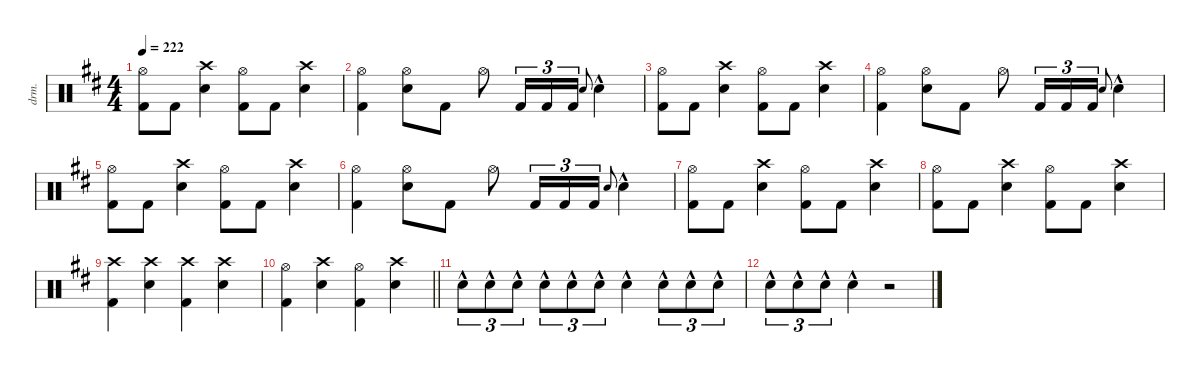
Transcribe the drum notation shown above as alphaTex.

\defaultSystemsLayout 4
\hideDynamics
\bracketExtendMode nobrackets
\otherSystemsTrackNameOrientation horizontal
\track ("Lars Ulrich" "drm.") {defaultSystemsLayout 4 instrument percussion}
\staff {score}
\articulation defaults
\ts (4 4)
\tempo 222
\clef neutral
\ks bminor
("Hi-Hat (open)"{acc forcenatural} "Kick (hit) 2"{acc forcenatural}).8{dy f} "Kick (hit) 2"{acc forcenatural}.8 ("Crash high (hit)"{acc forcenatural} "Snare (hit) 2"{acc forcenatural}).4 ("Hi-Hat (open)"{acc forcenatural} "Kick (hit) 2"{acc forcenatural}).8 "Kick (hit) 2"{acc forcenatural}.8 ("Crash high (hit)"{acc forcenatural} "Snare (hit) 2"{acc forcenatural}).4 |
("Hi-Hat (open)"{acc forcenatural} "Kick (hit) 2"{acc forcenatural}).4 ("Hi-Hat (open)"{acc forcenatural} "Snare (hit) 2"{acc forcenatural}).8 "Kick (hit) 2"{acc forcenatural}.8 "Hi-Hat (open)"{acc forcenatural}.8 "Kick (hit) 2"{acc forcenatural}.16{tu (3 2)} "Kick (hit) 2"{acc forcenatural}.16{tu (3 2)} "Kick (hit) 2"{acc forcenatural}.16{tu (3 2)} "Electric Snare (hit)"{acc forcenatural}.8{gr onbeat dy mp} "Snare (hit) 2"{hac acc forcenatural}.4{dy f} |
("Hi-Hat (open)"{acc forcenatural} "Kick (hit) 2"{acc forcenatural}).8 "Kick (hit) 2"{acc forcenatural}.8 ("Crash high (hit)"{acc forcenatural} "Snare (hit) 2"{acc forcenatural}).4 ("Hi-Hat (open)"{acc forcenatural} "Kick (hit) 2"{acc forcenatural}).8 "Kick (hit) 2"{acc forcenatural}.8 ("Crash high (hit)"{acc forcenatural} "Snare (hit) 2"{acc forcenatural}).4 |
("Hi-Hat (open)"{acc forcenatural} "Kick (hit) 2"{acc forcenatural}).4 ("Hi-Hat (open)"{acc forcenatural} "Snare (hit) 2"{acc forcenatural}).8 "Kick (hit) 2"{acc forcenatural}.8 "Hi-Hat (open)"{acc forcenatural}.8 "Kick (hit) 2"{acc forcenatural}.16{tu (3 2)} "Kick (hit) 2"{acc forcenatural}.16{tu (3 2)} "Kick (hit) 2"{acc forcenatural}.16{tu (3 2)} "Electric Snare (hit)"{acc forcenatural}.8{gr onbeat dy mp} "Snare (hit) 2"{hac acc forcenatural}.4{dy f} |
("Hi-Hat (open)"{acc forcenatural} "Kick (hit) 2"{acc forcenatural}).8 "Kick (hit) 2"{acc forcenatural}.8 ("Crash high (hit)"{acc forcenatural} "Snare (hit) 2"{acc forcenatural}).4 ("Hi-Hat (open)"{acc forcenatural} "Kick (hit) 2"{acc forcenatural}).8 "Kick (hit) 2"{acc forcenatural}.8 ("Crash high (hit)"{acc forcenatural} "Snare (hit) 2"{acc forcenatural}).4 |
("Hi-Hat (open)"{acc forcenatural} "Kick (hit) 2"{acc forcenatural}).4 ("Hi-Hat (open)"{acc forcenatural} "Snare (hit) 2"{acc forcenatural}).8 "Kick (hit) 2"{acc forcenatural}.8 "Hi-Hat (open)"{acc forcenatural}.8 "Kick (hit) 2"{acc forcenatural}.16{tu (3 2)} "Kick (hit) 2"{acc forcenatural}.16{tu (3 2)} "Kick (hit) 2"{acc forcenatural}.16{tu (3 2)} "Electric Snare (hit)"{acc forcenatural}.8{gr onbeat dy mp} "Snare (hit) 2"{hac acc forcenatural}.4{dy f} |
("Hi-Hat (open)"{acc forcenatural} "Kick (hit) 2"{acc forcenatural}).8 "Kick (hit) 2"{acc forcenatural}.8 ("Crash high (hit)"{acc forcenatural} "Snare (hit) 2"{acc forcenatural}).4 ("Hi-Hat (open)"{acc forcenatural} "Kick (hit) 2"{acc forcenatural}).8 "Kick (hit) 2"{acc forcenatural}.8 ("Crash high (hit)"{acc forcenatural} "Snare (hit) 2"{acc forcenatural}).4 |
("Hi-Hat (open)"{acc forcenatural} "Kick (hit) 2"{acc forcenatural}).8 "Kick (hit) 2"{acc forcenatural}.8 ("Crash high (hit)"{acc forcenatural} "Snare (hit) 2"{acc forcenatural}).4 ("Hi-Hat (open)"{acc forcenatural} "Kick (hit) 2"{acc forcenatural}).8 "Kick (hit) 2"{acc forcenatural}.8 ("Crash high (hit)"{acc forcenatural} "Snare (hit) 2"{acc forcenatural}).4 |
("Crash high (hit)"{acc forcenatural} "Kick (hit) 2"{acc forcenatural}).4 ("Crash high (hit)"{acc forcenatural} "Snare (hit) 2"{acc forcenatural}).4 ("Crash high (hit)"{acc forcenatural} "Kick (hit) 2"{acc forcenatural}).4 ("Crash high (hit)"{acc forcenatural} "Snare (hit) 2"{acc forcenatural}).4 |
\barLineRight lightlight
("Hi-Hat (open)"{acc forcenatural} "Kick (hit) 2"{acc forcenatural}).4 ("Crash high (hit)"{acc forcenatural} "Snare (hit) 2"{acc forcenatural}).4 ("Hi-Hat (open)"{acc forcenatural} "Kick (hit) 2"{acc forcenatural}).4 ("Crash high (hit)"{acc forcenatural} "Snare (hit) 2"{acc forcenatural}).4 |
"Snare (hit) 2"{hac acc forcenatural}.8{tu (3 2)} "Snare (hit) 2"{hac acc forcenatural}.8{tu (3 2)} "Snare (hit) 2"{hac acc forcenatural}.8{tu (3 2)} "Snare (hit) 2"{hac acc forcenatural}.8{tu (3 2)} "Snare (hit) 2"{hac acc forcenatural}.8{tu (3 2)} "Snare (hit) 2"{hac acc forcenatural}.8{tu (3 2)} "Snare (hit) 2"{hac acc forcenatural}.4 "Snare (hit) 2"{hac acc forcenatural}.8{tu (3 2)} "Snare (hit) 2"{hac acc forcenatural}.8{tu (3 2)} "Snare (hit) 2"{hac acc forcenatural}.8{tu (3 2)} |
"Snare (hit) 2"{hac acc forcenatural}.8{tu (3 2)} "Snare (hit) 2"{hac acc forcenatural}.8{tu (3 2)} "Snare (hit) 2"{hac acc forcenatural}.8{tu (3 2)} "Snare (hit) 2"{hac acc forcenatural}.4 r.2
